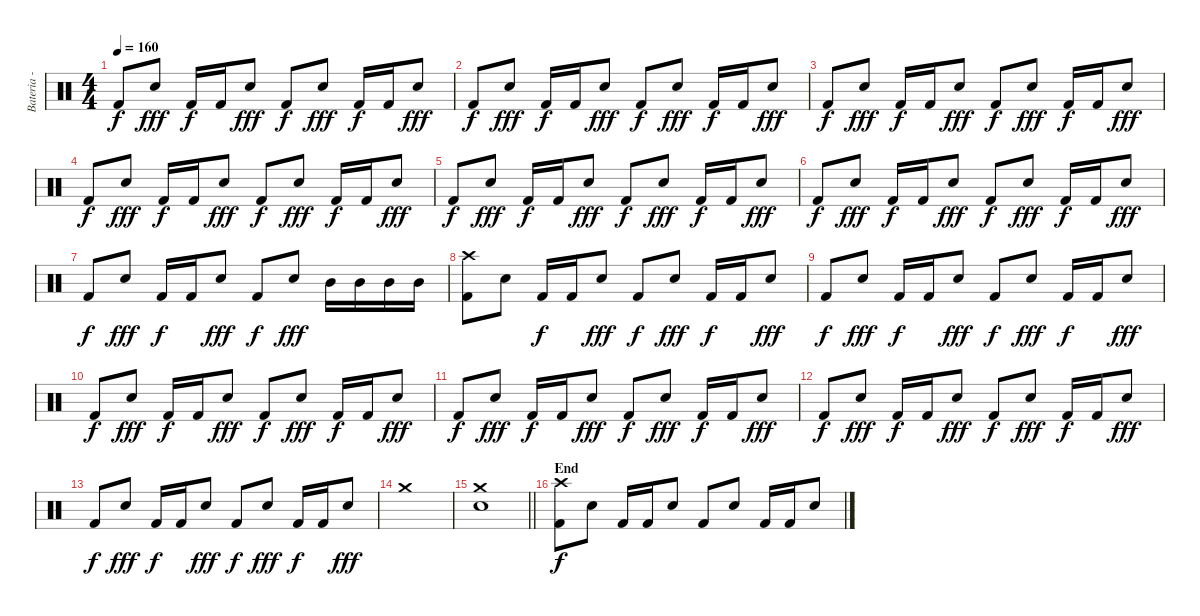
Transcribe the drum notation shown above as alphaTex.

\track ("Bateria - Larzon" "Bateria - ") {instrument percussion}
\staff {score}
\articulation defaults
\ts (4 4)
\tempo 160
\clef neutral
\ks c "Kick (hit) 2".8{dy f} "Snare (hit) 2".8{dy fff} "Kick (hit) 2".16{dy f} "Kick (hit) 2".16 "Snare (hit) 2".8{dy fff} "Kick (hit) 2".8{dy f} "Snare (hit) 2".8{dy fff} "Kick (hit) 2".16{dy f} "Kick (hit) 2".16 "Snare (hit) 2".8{dy fff}
|
"Kick (hit) 2".8{dy f} "Snare (hit) 2".8{dy fff} "Kick (hit) 2".16{dy f} "Kick (hit) 2".16 "Snare (hit) 2".8{dy fff} "Kick (hit) 2".8{dy f} "Snare (hit) 2".8{dy fff} "Kick (hit) 2".16{dy f} "Kick (hit) 2".16 "Snare (hit) 2".8{dy fff} |
"Kick (hit) 2".8{dy f} "Snare (hit) 2".8{dy fff} "Kick (hit) 2".16{dy f} "Kick (hit) 2".16 "Snare (hit) 2".8{dy fff} "Kick (hit) 2".8{dy f} "Snare (hit) 2".8{dy fff} "Kick (hit) 2".16{dy f} "Kick (hit) 2".16 "Snare (hit) 2".8{dy fff} |
"Kick (hit) 2".8{dy f} "Snare (hit) 2".8{dy fff} "Kick (hit) 2".16{dy f} "Kick (hit) 2".16 "Snare (hit) 2".8{dy fff} "Kick (hit) 2".8{dy f} "Snare (hit) 2".8{dy fff} "Kick (hit) 2".16{dy f} "Kick (hit) 2".16 "Snare (hit) 2".8{dy fff} |
"Kick (hit) 2".8{dy f} "Snare (hit) 2".8{dy fff} "Kick (hit) 2".16{dy f} "Kick (hit) 2".16 "Snare (hit) 2".8{dy fff} "Kick (hit) 2".8{dy f} "Snare (hit) 2".8{dy fff} "Kick (hit) 2".16{dy f} "Kick (hit) 2".16 "Snare (hit) 2".8{dy fff} |
"Kick (hit) 2".8{dy f} "Snare (hit) 2".8{dy fff} "Kick (hit) 2".16{dy f} "Kick (hit) 2".16 "Snare (hit) 2".8{dy fff} "Kick (hit) 2".8{dy f} "Snare (hit) 2".8{dy fff} "Kick (hit) 2".16{dy f} "Kick (hit) 2".16 "Snare (hit) 2".8{dy fff} |
"Kick (hit) 2".8{dy f} "Snare (hit) 2".8{dy fff} "Kick (hit) 2".16{dy f} "Kick (hit) 2".16 "Snare (hit) 2".8{dy fff} "Kick (hit) 2".8{dy f} "Snare (hit) 2".8{dy fff} "Mid Tom (hit)".16 "Mid Tom (hit)".16 "Mid Tom (hit)".16 "Mid Tom (hit)".16 |
("Kick (hit) 2" "Crash high (hit)").8 "Snare (hit) 2".8 "Kick (hit) 2".16{dy f} "Kick (hit) 2".16 "Snare (hit) 2".8{dy fff} "Kick (hit) 2".8{dy f} "Snare (hit) 2".8{dy fff} "Kick (hit) 2".16{dy f} "Kick (hit) 2".16 "Snare (hit) 2".8{dy fff} |
"Kick (hit) 2".8{dy f} "Snare (hit) 2".8{dy fff} "Kick (hit) 2".16{dy f} "Kick (hit) 2".16 "Snare (hit) 2".8{dy fff} "Kick (hit) 2".8{dy f} "Snare (hit) 2".8{dy fff} "Kick (hit) 2".16{dy f} "Kick (hit) 2".16 "Snare (hit) 2".8{dy fff} |
"Kick (hit) 2".8{dy f} "Snare (hit) 2".8{dy fff} "Kick (hit) 2".16{dy f} "Kick (hit) 2".16 "Snare (hit) 2".8{dy fff} "Kick (hit) 2".8{dy f} "Snare (hit) 2".8{dy fff} "Kick (hit) 2".16{dy f} "Kick (hit) 2".16 "Snare (hit) 2".8{dy fff} |
"Kick (hit) 2".8{dy f} "Snare (hit) 2".8{dy fff} "Kick (hit) 2".16{dy f} "Kick (hit) 2".16 "Snare (hit) 2".8{dy fff} "Kick (hit) 2".8{dy f} "Snare (hit) 2".8{dy fff} "Kick (hit) 2".16{dy f} "Kick (hit) 2".16 "Snare (hit) 2".8{dy fff} |
"Kick (hit) 2".8{dy f} "Snare (hit) 2".8{dy fff} "Kick (hit) 2".16{dy f} "Kick (hit) 2".16 "Snare (hit) 2".8{dy fff} "Kick (hit) 2".8{dy f} "Snare (hit) 2".8{dy fff} "Kick (hit) 2".16{dy f} "Kick (hit) 2".16 "Snare (hit) 2".8{dy fff} |
"Kick (hit) 2".8{dy f} "Snare (hit) 2".8{dy fff} "Kick (hit) 2".16{dy f} "Kick (hit) 2".16 "Snare (hit) 2".8{dy fff} "Kick (hit) 2".8{dy f} "Snare (hit) 2".8{dy fff} "Kick (hit) 2".16{dy f} "Kick (hit) 2".16 "Snare (hit) 2".8{dy fff} |
"Crash medium (hit)".1 |
\barLineRight lightlight
("Crash medium (hit)" "Snare (hit) 2").1 |
\section ("" "End")
("Kick (hit) 2" "Crash high (hit)").8{dy f} "Snare (hit) 2".8 "Kick (hit) 2".16 "Kick (hit) 2".16 "Snare (hit) 2".8 "Kick (hit) 2".8 "Snare (hit) 2".8 "Kick (hit) 2".16 "Kick (hit) 2".16 "Snare (hit) 2".8
